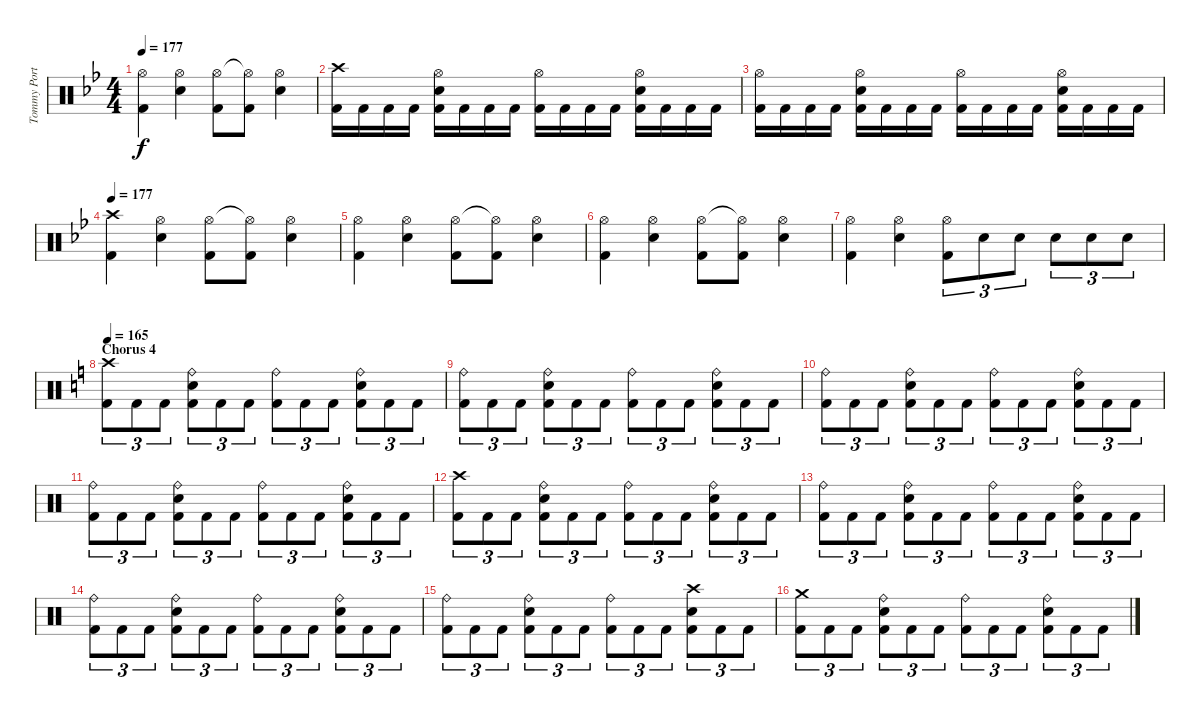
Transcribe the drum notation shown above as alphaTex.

\track ("Tommy Portimo" "Tommy Port") {instrument percussion}
\staff {score}
\articulation defaults
\ts (4 4)
\tempo 177
\clef neutral
\ks gminor
("Hi-Hat (open)" "Kick (hit) 2").4{dy f} ("Hi-Hat (open)" "Snare (hit) 2").4 ("Hi-Hat (open)" "Kick (hit) 2").8 ("Hi-Hat (open)"{t} "Kick (hit) 2").8 ("Hi-Hat (open)" "Snare (hit) 2").4 |
("Crash high (hit)" "Kick (hit) 2").16 "Kick (hit) 2".16 "Kick (hit) 2".16 "Kick (hit) 2".16 ("Hi-Hat (open)" "Snare (hit) 2" "Kick (hit) 2").16 "Kick (hit) 2".16 "Kick (hit) 2".16 "Kick (hit) 2".16 ("Hi-Hat (open)" "Kick (hit) 2").16 "Kick (hit) 2".16 "Kick (hit) 2".16 "Kick (hit) 2".16 ("Hi-Hat (open)" "Snare (hit) 2" "Kick (hit) 2").16 "Kick (hit) 2".16 "Kick (hit) 2".16 "Kick (hit) 2".16 |
("Hi-Hat (open)" "Kick (hit) 2").16 "Kick (hit) 2".16 "Kick (hit) 2".16 "Kick (hit) 2".16 ("Hi-Hat (open)" "Snare (hit) 2" "Kick (hit) 2").16 "Kick (hit) 2".16 "Kick (hit) 2".16 "Kick (hit) 2".16 ("Hi-Hat (open)" "Kick (hit) 2").16 "Kick (hit) 2".16 "Kick (hit) 2".16 "Kick (hit) 2".16 ("Hi-Hat (open)" "Snare (hit) 2" "Kick (hit) 2").16 "Kick (hit) 2".16 "Kick (hit) 2".16 "Kick (hit) 2".16 |
\tempo 177
("Crash high (hit)" "Kick (hit) 2").4 ("Hi-Hat (open)" "Snare (hit) 2").4 ("Hi-Hat (open)" "Kick (hit) 2").8 ("Hi-Hat (open)"{t} "Kick (hit) 2").8 ("Hi-Hat (open)" "Snare (hit) 2").4 |
("Hi-Hat (open)" "Kick (hit) 2").4 ("Hi-Hat (open)" "Snare (hit) 2").4 ("Hi-Hat (open)" "Kick (hit) 2").8 ("Hi-Hat (open)"{t} "Kick (hit) 2").8 ("Hi-Hat (open)" "Snare (hit) 2").4 |
("Hi-Hat (open)" "Kick (hit) 2").4 ("Hi-Hat (open)" "Snare (hit) 2").4 ("Hi-Hat (open)" "Kick (hit) 2").8 ("Hi-Hat (open)"{t} "Kick (hit) 2").8 ("Hi-Hat (open)" "Snare (hit) 2").4 |
("Hi-Hat (open)" "Kick (hit) 2").4 ("Hi-Hat (open)" "Snare (hit) 2").4 ("Hi-Hat (open)" "Kick (hit) 2").8{tu (3 2)} "Snare (hit) 2".8{tu (3 2)} "Snare (hit) 2".8{tu (3 2)} "Snare (hit) 2".8{tu (3 2)} "Snare (hit) 2".8{tu (3 2)} "Snare (hit) 2".8{tu (3 2)} |
\section ("" "Chorus 4")
\tempo 165
\ks c
("Crash high (hit)" "Kick (hit) 2").8{tu (3 2)} "Kick (hit) 2".8{tu (3 2)} "Kick (hit) 2".8{tu (3 2)} ("Ride (bell)" "Snare (hit) 2" "Kick (hit) 2").8{tu (3 2)} "Kick (hit) 2".8{tu (3 2)} "Kick (hit) 2".8{tu (3 2)} ("Ride (bell)" "Kick (hit) 2").8{tu (3 2)} "Kick (hit) 2".8{tu (3 2)} "Kick (hit) 2".8{tu (3 2)} ("Ride (bell)" "Snare (hit) 2" "Kick (hit) 2").8{tu (3 2)} "Kick (hit) 2".8{tu (3 2)} "Kick (hit) 2".8{tu (3 2)} |
("Ride (bell)" "Kick (hit) 2").8{tu (3 2)} "Kick (hit) 2".8{tu (3 2)} "Kick (hit) 2".8{tu (3 2)} ("Ride (bell)" "Snare (hit) 2" "Kick (hit) 2").8{tu (3 2)} "Kick (hit) 2".8{tu (3 2)} "Kick (hit) 2".8{tu (3 2)} ("Ride (bell)" "Kick (hit) 2").8{tu (3 2)} "Kick (hit) 2".8{tu (3 2)} "Kick (hit) 2".8{tu (3 2)} ("Ride (bell)" "Snare (hit) 2" "Kick (hit) 2").8{tu (3 2)} "Kick (hit) 2".8{tu (3 2)} "Kick (hit) 2".8{tu (3 2)} |
("Ride (bell)" "Kick (hit) 2").8{tu (3 2)} "Kick (hit) 2".8{tu (3 2)} "Kick (hit) 2".8{tu (3 2)} ("Ride (bell)" "Snare (hit) 2" "Kick (hit) 2").8{tu (3 2)} "Kick (hit) 2".8{tu (3 2)} "Kick (hit) 2".8{tu (3 2)} ("Ride (bell)" "Kick (hit) 2").8{tu (3 2)} "Kick (hit) 2".8{tu (3 2)} "Kick (hit) 2".8{tu (3 2)} ("Ride (bell)" "Snare (hit) 2" "Kick (hit) 2").8{tu (3 2)} "Kick (hit) 2".8{tu (3 2)} "Kick (hit) 2".8{tu (3 2)} |
("Ride (bell)" "Kick (hit) 2").8{tu (3 2)} "Kick (hit) 2".8{tu (3 2)} "Kick (hit) 2".8{tu (3 2)} ("Ride (bell)" "Snare (hit) 2" "Kick (hit) 2").8{tu (3 2)} "Kick (hit) 2".8{tu (3 2)} "Kick (hit) 2".8{tu (3 2)} ("Ride (bell)" "Kick (hit) 2").8{tu (3 2)} "Kick (hit) 2".8{tu (3 2)} "Kick (hit) 2".8{tu (3 2)} ("Ride (bell)" "Snare (hit) 2" "Kick (hit) 2").8{tu (3 2)} "Kick (hit) 2".8{tu (3 2)} "Kick (hit) 2".8{tu (3 2)} |
("Crash high (hit)" "Kick (hit) 2").8{tu (3 2)} "Kick (hit) 2".8{tu (3 2)} "Kick (hit) 2".8{tu (3 2)} ("Ride (bell)" "Snare (hit) 2" "Kick (hit) 2").8{tu (3 2)} "Kick (hit) 2".8{tu (3 2)} "Kick (hit) 2".8{tu (3 2)} ("Ride (bell)" "Kick (hit) 2").8{tu (3 2)} "Kick (hit) 2".8{tu (3 2)} "Kick (hit) 2".8{tu (3 2)} ("Ride (bell)" "Snare (hit) 2" "Kick (hit) 2").8{tu (3 2)} "Kick (hit) 2".8{tu (3 2)} "Kick (hit) 2".8{tu (3 2)} |
("Ride (bell)" "Kick (hit) 2").8{tu (3 2)} "Kick (hit) 2".8{tu (3 2)} "Kick (hit) 2".8{tu (3 2)} ("Ride (bell)" "Snare (hit) 2" "Kick (hit) 2").8{tu (3 2)} "Kick (hit) 2".8{tu (3 2)} "Kick (hit) 2".8{tu (3 2)} ("Ride (bell)" "Kick (hit) 2").8{tu (3 2)} "Kick (hit) 2".8{tu (3 2)} "Kick (hit) 2".8{tu (3 2)} ("Ride (bell)" "Snare (hit) 2" "Kick (hit) 2").8{tu (3 2)} "Kick (hit) 2".8{tu (3 2)} "Kick (hit) 2".8{tu (3 2)} |
("Ride (bell)" "Kick (hit) 2").8{tu (3 2)} "Kick (hit) 2".8{tu (3 2)} "Kick (hit) 2".8{tu (3 2)} ("Ride (bell)" "Snare (hit) 2" "Kick (hit) 2").8{tu (3 2)} "Kick (hit) 2".8{tu (3 2)} "Kick (hit) 2".8{tu (3 2)} ("Ride (bell)" "Kick (hit) 2").8{tu (3 2)} "Kick (hit) 2".8{tu (3 2)} "Kick (hit) 2".8{tu (3 2)} ("Ride (bell)" "Snare (hit) 2" "Kick (hit) 2").8{tu (3 2)} "Kick (hit) 2".8{tu (3 2)} "Kick (hit) 2".8{tu (3 2)} |
("Ride (bell)" "Kick (hit) 2").8{tu (3 2)} "Kick (hit) 2".8{tu (3 2)} "Kick (hit) 2".8{tu (3 2)} ("Ride (bell)" "Snare (hit) 2" "Kick (hit) 2").8{tu (3 2)} "Kick (hit) 2".8{tu (3 2)} "Kick (hit) 2".8{tu (3 2)} ("Ride (bell)" "Kick (hit) 2").8{tu (3 2)} "Kick (hit) 2".8{tu (3 2)} "Kick (hit) 2".8{tu (3 2)} ("Crash high (hit)" "Snare (hit) 2" "Kick (hit) 2").8{tu (3 2)} "Kick (hit) 2".8{tu (3 2)} "Kick (hit) 2".8{tu (3 2)} |
("Crash medium (hit)" "Kick (hit) 2").8{tu (3 2)} "Kick (hit) 2".8{tu (3 2)} "Kick (hit) 2".8{tu (3 2)} ("Ride (bell)" "Snare (hit) 2" "Kick (hit) 2").8{tu (3 2)} "Kick (hit) 2".8{tu (3 2)} "Kick (hit) 2".8{tu (3 2)} ("Ride (bell)" "Kick (hit) 2").8{tu (3 2)} "Kick (hit) 2".8{tu (3 2)} "Kick (hit) 2".8{tu (3 2)} ("Ride (bell)" "Snare (hit) 2" "Kick (hit) 2").8{tu (3 2)} "Kick (hit) 2".8{tu (3 2)} "Kick (hit) 2".8{tu (3 2)}
